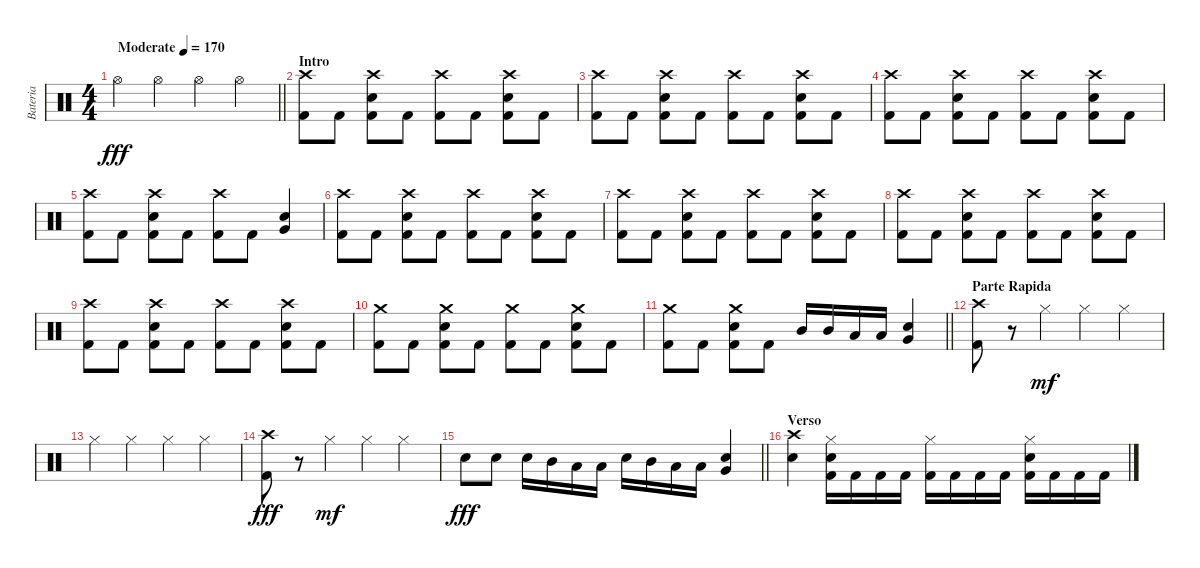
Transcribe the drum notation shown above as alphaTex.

\track ("Bateria" "Bateria") {instrument percussion}
\staff {score}
\articulation defaults
\ts (4 4)
\tempo (170 "Moderate")
\clef neutral
\barLineRight lightlight
\ks c "Hi-Hat (open)".4{dy fff} "Hi-Hat (open)".4 "Hi-Hat (open)".4 "Hi-Hat (open)".4
|
\section ("" "Intro")
("Crash high (hit)" "Kick (hit) 2").8 "Kick (hit) 2".8 ("Crash high (hit)" "Electric Snare (hit)" "Kick (hit) 2").8 "Kick (hit) 2".8 ("Crash high (hit)" "Kick (hit) 2").8 "Kick (hit) 2".8 ("Crash high (hit)" "Electric Snare (hit)" "Kick (hit) 2").8 "Kick (hit) 2".8 |
("Crash high (hit)" "Kick (hit) 2").8 "Kick (hit) 2".8 ("Crash high (hit)" "Electric Snare (hit)" "Kick (hit) 2").8 "Kick (hit) 2".8 ("Crash high (hit)" "Kick (hit) 2").8 "Kick (hit) 2".8 ("Crash high (hit)" "Electric Snare (hit)" "Kick (hit) 2").8 "Kick (hit) 2".8 |
("Crash high (hit)" "Kick (hit) 2").8 "Kick (hit) 2".8 ("Crash high (hit)" "Electric Snare (hit)" "Kick (hit) 2").8 "Kick (hit) 2".8 ("Crash high (hit)" "Kick (hit) 2").8 "Kick (hit) 2".8 ("Crash high (hit)" "Electric Snare (hit)" "Kick (hit) 2").8 "Kick (hit) 2".8 |
("Crash high (hit)" "Kick (hit) 2").8 "Kick (hit) 2".8 ("Crash high (hit)" "Electric Snare (hit)" "Kick (hit) 2").8 "Kick (hit) 2".8 ("Crash high (hit)" "Kick (hit) 2").8 "Kick (hit) 2".8 ("Electric Snare (hit)" "Very Low Tom (hit)").4 |
("Crash high (hit)" "Kick (hit) 2").8 "Kick (hit) 2".8 ("Crash high (hit)" "Electric Snare (hit)" "Kick (hit) 2").8 "Kick (hit) 2".8 ("Crash high (hit)" "Kick (hit) 2").8 "Kick (hit) 2".8 ("Crash high (hit)" "Electric Snare (hit)" "Kick (hit) 2").8 "Kick (hit) 2".8 |
("Crash high (hit)" "Kick (hit) 2").8 "Kick (hit) 2".8 ("Crash high (hit)" "Electric Snare (hit)" "Kick (hit) 2").8 "Kick (hit) 2".8 ("Crash high (hit)" "Kick (hit) 2").8 "Kick (hit) 2".8 ("Crash high (hit)" "Electric Snare (hit)" "Kick (hit) 2").8 "Kick (hit) 2".8 |
("Crash high (hit)" "Kick (hit) 2").8 "Kick (hit) 2".8 ("Crash high (hit)" "Electric Snare (hit)" "Kick (hit) 2").8 "Kick (hit) 2".8 ("Crash high (hit)" "Kick (hit) 2").8 "Kick (hit) 2".8 ("Crash high (hit)" "Electric Snare (hit)" "Kick (hit) 2").8 "Kick (hit) 2".8 |
("Crash high (hit)" "Kick (hit) 2").8 "Kick (hit) 2".8 ("Crash high (hit)" "Electric Snare (hit)" "Kick (hit) 2").8 "Kick (hit) 2".8 ("Crash high (hit)" "Kick (hit) 2").8 "Kick (hit) 2".8 ("Crash high (hit)" "Electric Snare (hit)" "Kick (hit) 2").8 "Kick (hit) 2".8 |
("Crash medium (hit)" "Kick (hit) 2").8 "Kick (hit) 2".8 ("Crash medium (hit)" "Electric Snare (hit)" "Kick (hit) 2").8 "Kick (hit) 2".8 ("Crash medium (hit)" "Kick (hit) 2").8 "Kick (hit) 2".8 ("Crash medium (hit)" "Electric Snare (hit)" "Kick (hit) 2").8 "Kick (hit) 2".8 |
\barLineRight lightlight
("Crash medium (hit)" "Kick (hit) 2").8 "Kick (hit) 2".8 ("Crash medium (hit)" "Electric Snare (hit)" "Kick (hit) 2").8 "Kick (hit) 2".8 "Mid Tom (hit)".16 "Mid Tom (hit)".16 "Low Tom (hit)".16 "Low Tom (hit)".16 ("Electric Snare (hit)" "Very Low Tom (hit)").4 |
\section ("" "Parte Rapida")
("Crash high (hit)" "Kick (hit) 2").8 r.8 "Hi-Hat (closed)".4{dy mf} "Hi-Hat (closed)".4 "Hi-Hat (closed)".4 |
"Hi-Hat (closed)".4 "Hi-Hat (closed)".4 "Hi-Hat (closed)".4 "Hi-Hat (closed)".4 |
("Crash high (hit)" "Kick (hit) 2").8{dy fff} r.8 "Hi-Hat (closed)".4{dy mf} "Hi-Hat (closed)".4 "Hi-Hat (closed)".4 |
\barLineRight lightlight "Electric Snare (hit)".8{dy fff} "Electric Snare (hit)".8 "Electric Snare (hit)".16 "Mid Tom (hit)".16 "Low Tom (hit)".16 "Low Tom (hit)".16 "Electric Snare (hit)".16 "Mid Tom (hit)".16 "Low Tom (hit)".16 "Low Tom (hit)".16
("Very Low Tom (hit)" "Electric Snare (hit)").4 |
\section ("" "Verso")
("Crash high (hit)" "Metronome (bell)").4 ("Hi-Hat (closed)" "Electric Snare (hit)" "Kick (hit) 2").16 "Kick (hit) 2".16 "Kick (hit) 2".16 "Kick (hit) 2".16 ("Hi-Hat (closed)" "Kick (hit) 2").16 "Kick (hit) 2".16 "Kick (hit) 2".16 "Kick (hit) 2".16 ("Hi-Hat (closed)" "Electric Snare (hit)" "Kick (hit) 2").16 "Kick (hit) 2".16 "Kick (hit) 2".16 "Kick (hit) 2".16
